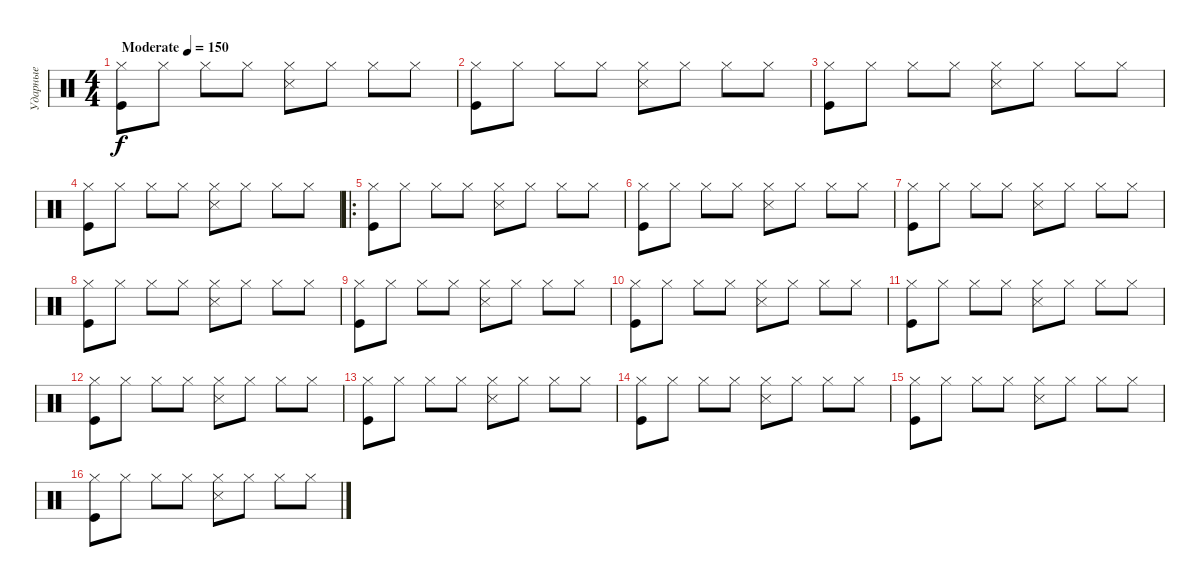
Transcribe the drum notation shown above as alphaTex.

\track ("Ударные" "Ударные") {instrument percussion}
\staff {score}
\articulation defaults
\ts (4 4)
\tempo (150 "Moderate")
\clef neutral
\ks c
("Hi-Hat (closed)" "Kick (hit)").8{dy f} "Hi-Hat (closed)".8 "Hi-Hat (closed)".8 "Hi-Hat (closed)".8 ("Hi-Hat (closed)" "Metronome (hit)").8 "Hi-Hat (closed)".8 "Hi-Hat (closed)".8 "Hi-Hat (closed)".8 |
("Hi-Hat (closed)" "Kick (hit)").8 "Hi-Hat (closed)".8 "Hi-Hat (closed)".8 "Hi-Hat (closed)".8 ("Hi-Hat (closed)" "Metronome (hit)").8 "Hi-Hat (closed)".8 "Hi-Hat (closed)".8 "Hi-Hat (closed)".8 |
("Hi-Hat (closed)" "Kick (hit)").8 "Hi-Hat (closed)".8 "Hi-Hat (closed)".8 "Hi-Hat (closed)".8 ("Hi-Hat (closed)" "Metronome (hit)").8 "Hi-Hat (closed)".8 "Hi-Hat (closed)".8 "Hi-Hat (closed)".8 |
("Hi-Hat (closed)" "Kick (hit)").8 "Hi-Hat (closed)".8 "Hi-Hat (closed)".8 "Hi-Hat (closed)".8 ("Hi-Hat (closed)" "Metronome (hit)").8 "Hi-Hat (closed)".8 "Hi-Hat (closed)".8 "Hi-Hat (closed)".8 |
\ro
("Hi-Hat (closed)" "Kick (hit)").8 "Hi-Hat (closed)".8 "Hi-Hat (closed)".8 "Hi-Hat (closed)".8 ("Hi-Hat (closed)" "Metronome (hit)").8 "Hi-Hat (closed)".8 "Hi-Hat (closed)".8 "Hi-Hat (closed)".8 |
("Hi-Hat (closed)" "Kick (hit)").8 "Hi-Hat (closed)".8 "Hi-Hat (closed)".8 "Hi-Hat (closed)".8 ("Hi-Hat (closed)" "Metronome (hit)").8 "Hi-Hat (closed)".8 "Hi-Hat (closed)".8 "Hi-Hat (closed)".8 |
("Hi-Hat (closed)" "Kick (hit)").8 "Hi-Hat (closed)".8 "Hi-Hat (closed)".8 "Hi-Hat (closed)".8 ("Hi-Hat (closed)" "Metronome (hit)").8 "Hi-Hat (closed)".8 "Hi-Hat (closed)".8 "Hi-Hat (closed)".8 |
("Hi-Hat (closed)" "Kick (hit)").8 "Hi-Hat (closed)".8 "Hi-Hat (closed)".8 "Hi-Hat (closed)".8 ("Hi-Hat (closed)" "Metronome (hit)").8 "Hi-Hat (closed)".8 "Hi-Hat (closed)".8 "Hi-Hat (closed)".8 |
("Hi-Hat (closed)" "Kick (hit)").8 "Hi-Hat (closed)".8 "Hi-Hat (closed)".8 "Hi-Hat (closed)".8 ("Hi-Hat (closed)" "Metronome (hit)").8 "Hi-Hat (closed)".8 "Hi-Hat (closed)".8 "Hi-Hat (closed)".8 |
("Hi-Hat (closed)" "Kick (hit)").8 "Hi-Hat (closed)".8 "Hi-Hat (closed)".8 "Hi-Hat (closed)".8 ("Hi-Hat (closed)" "Metronome (hit)").8 "Hi-Hat (closed)".8 "Hi-Hat (closed)".8 "Hi-Hat (closed)".8 |
("Hi-Hat (closed)" "Kick (hit)").8 "Hi-Hat (closed)".8 "Hi-Hat (closed)".8 "Hi-Hat (closed)".8 ("Hi-Hat (closed)" "Metronome (hit)").8 "Hi-Hat (closed)".8 "Hi-Hat (closed)".8 "Hi-Hat (closed)".8 |
("Hi-Hat (closed)" "Kick (hit)").8 "Hi-Hat (closed)".8 "Hi-Hat (closed)".8 "Hi-Hat (closed)".8 ("Hi-Hat (closed)" "Metronome (hit)").8 "Hi-Hat (closed)".8 "Hi-Hat (closed)".8 "Hi-Hat (closed)".8 |
("Hi-Hat (closed)" "Kick (hit)").8 "Hi-Hat (closed)".8 "Hi-Hat (closed)".8 "Hi-Hat (closed)".8 ("Hi-Hat (closed)" "Metronome (hit)").8 "Hi-Hat (closed)".8 "Hi-Hat (closed)".8 "Hi-Hat (closed)".8 |
("Hi-Hat (closed)" "Kick (hit)").8 "Hi-Hat (closed)".8 "Hi-Hat (closed)".8 "Hi-Hat (closed)".8 ("Hi-Hat (closed)" "Metronome (hit)").8 "Hi-Hat (closed)".8 "Hi-Hat (closed)".8 "Hi-Hat (closed)".8 |
("Hi-Hat (closed)" "Kick (hit)").8 "Hi-Hat (closed)".8 "Hi-Hat (closed)".8 "Hi-Hat (closed)".8 ("Hi-Hat (closed)" "Metronome (hit)").8 "Hi-Hat (closed)".8 "Hi-Hat (closed)".8 "Hi-Hat (closed)".8 |
("Hi-Hat (closed)" "Kick (hit)").8 "Hi-Hat (closed)".8 "Hi-Hat (closed)".8 "Hi-Hat (closed)".8 ("Hi-Hat (closed)" "Metronome (hit)").8 "Hi-Hat (closed)".8 "Hi-Hat (closed)".8 "Hi-Hat (closed)".8
